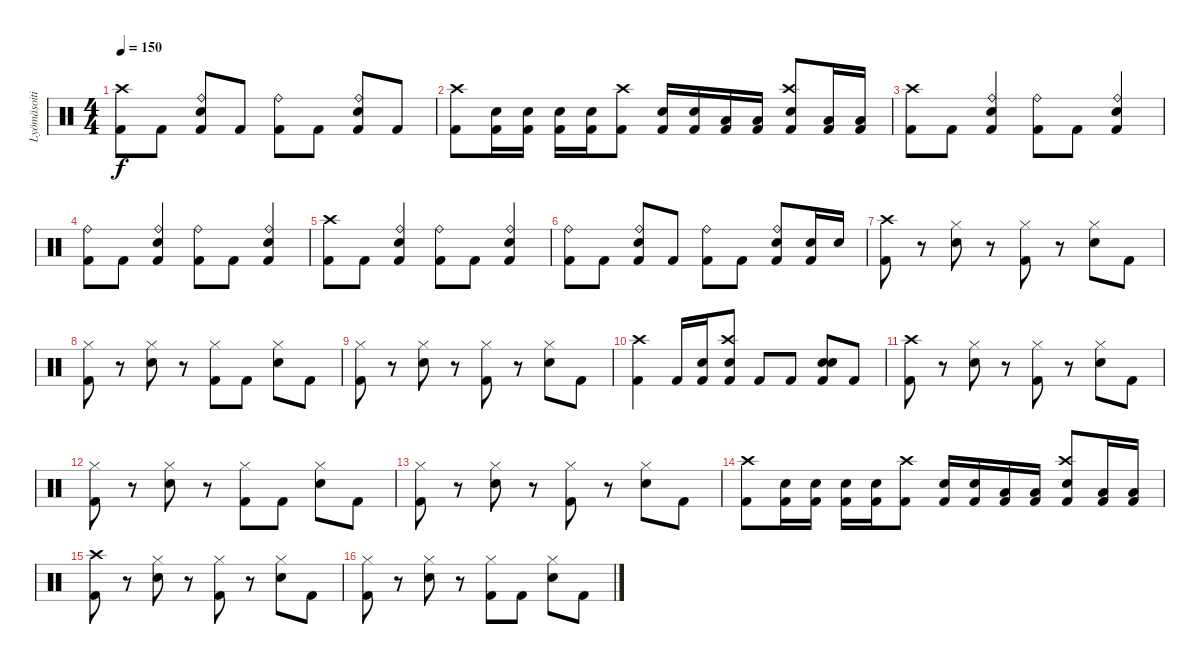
\track ("Lyömäsoitin" "Lyömäsoiti") {instrument percussion}
\staff {score}
\articulation defaults
\ts (4 4)
\tempo 150
\clef neutral
\ks c
("Kick (hit) 2" "Crash high (hit)").8{dy f} "Kick (hit) 2".8 ("Kick (hit) 2" "Ride (bell)" "Electric Snare (hit)").8 "Kick (hit) 2".8 ("Kick (hit) 2" "Ride (bell)").8 "Kick (hit) 2".8 ("Kick (hit) 2" "Ride (bell)" "Electric Snare (hit)").8 "Kick (hit) 2".8 |
("Kick (hit) 2" "Crash high (hit)").8 ("Kick (hit) 2" "Electric Snare (hit)").16 ("Kick (hit) 2" "Electric Snare (hit)").16 ("Kick (hit) 2" "Electric Snare (hit)").16 ("Kick (hit) 2" "Electric Snare (hit)").16 ("Kick (hit) 2" "Crash high (hit)").8 ("Kick (hit) 2" "Electric Snare (hit)").16 ("Kick (hit) 2" "Electric Snare (hit)").16 ("Kick (hit) 2" "Low Tom (hit)").16 ("Kick (hit) 2" "Low Tom (hit)").16 ("Kick (hit) 2" "Crash high (hit)" "Electric Snare (hit)").8 ("Kick (hit) 2" "Low Tom (hit)").16 ("Kick (hit) 2" "Low Tom (hit)").16 |
("Kick (hit) 2" "Crash high (hit)").8 "Kick (hit) 2".8 ("Kick (hit) 2" "Ride (bell)" "Electric Snare (hit)").4 ("Kick (hit) 2" "Ride (bell)").8 "Kick (hit) 2".8 ("Kick (hit) 2" "Ride (bell)" "Electric Snare (hit)").4 |
("Kick (hit) 2" "Ride (bell)").8 "Kick (hit) 2".8 ("Kick (hit) 2" "Ride (bell)" "Electric Snare (hit)").4 ("Kick (hit) 2" "Ride (bell)").8 "Kick (hit) 2".8 ("Kick (hit) 2" "Ride (bell)" "Electric Snare (hit)").4 |
("Kick (hit) 2" "Crash high (hit)").8 "Kick (hit) 2".8 ("Kick (hit) 2" "Ride (bell)" "Electric Snare (hit)").4 ("Kick (hit) 2" "Ride (bell)").8 "Kick (hit) 2".8 ("Kick (hit) 2" "Ride (bell)" "Electric Snare (hit)").4 |
("Kick (hit) 2" "Ride (bell)").8 "Kick (hit) 2".8 ("Kick (hit) 2" "Ride (bell)" "Electric Snare (hit)").8 "Kick (hit) 2".8 ("Kick (hit) 2" "Ride (bell)").8 "Kick (hit) 2".8 ("Kick (hit) 2" "Ride (bell)" "Electric Snare (hit)").8 ("Kick (hit) 2" "Electric Snare (hit)").16 "Electric Snare (hit)".16 |
("Crash high (hit)" "Kick (hit) 2").8 r.8 ("Hi-Hat (closed)" "Electric Snare (hit)").8 r.8 ("Hi-Hat (closed)" "Kick (hit) 2").8 r.8 ("Hi-Hat (closed)" "Electric Snare (hit)").8 "Kick (hit) 2".8 |
("Hi-Hat (closed)" "Kick (hit) 2").8 r.8 ("Hi-Hat (closed)" "Electric Snare (hit)").8 r.8 ("Hi-Hat (closed)" "Kick (hit) 2").8 "Kick (hit) 2".8 ("Hi-Hat (closed)" "Electric Snare (hit)").8 "Kick (hit) 2".8 |
("Hi-Hat (closed)" "Kick (hit) 2").8 r.8 ("Hi-Hat (closed)" "Electric Snare (hit)").8 r.8 ("Hi-Hat (closed)" "Kick (hit) 2").8 r.8 ("Hi-Hat (closed)" "Electric Snare (hit)").8 "Kick (hit) 2".8 |
("Kick (hit) 2" "Crash high (hit)").4 "Kick (hit) 2".16 ("Kick (hit) 2" "Snare (hit)").16 ("Kick (hit) 2" "Crash high (hit)" "Electric Snare (hit)").8 "Kick (hit) 2".8 "Kick (hit) 2".8 ("Kick (hit) 2" "Electric Snare (hit)" "Electric Snare (hit)").8 "Kick (hit) 2".8 |
("Crash high (hit)" "Kick (hit) 2").8 r.8 ("Hi-Hat (closed)" "Electric Snare (hit)").8 r.8 ("Hi-Hat (closed)" "Kick (hit) 2").8 r.8 ("Hi-Hat (closed)" "Electric Snare (hit)").8 "Kick (hit) 2".8 |
("Hi-Hat (closed)" "Kick (hit) 2").8 r.8 ("Hi-Hat (closed)" "Electric Snare (hit)").8 r.8 ("Hi-Hat (closed)" "Kick (hit) 2").8 "Kick (hit) 2".8 ("Hi-Hat (closed)" "Electric Snare (hit)").8 "Kick (hit) 2".8 |
("Hi-Hat (closed)" "Kick (hit) 2").8 r.8 ("Hi-Hat (closed)" "Electric Snare (hit)").8 r.8 ("Hi-Hat (closed)" "Kick (hit) 2").8 r.8 ("Hi-Hat (closed)" "Electric Snare (hit)").8 "Kick (hit) 2".8 |
("Kick (hit) 2" "Crash high (hit)").8 ("Kick (hit) 2" "Electric Snare (hit)").16 ("Kick (hit) 2" "Electric Snare (hit)").16 ("Kick (hit) 2" "Electric Snare (hit)").16 ("Kick (hit) 2" "Electric Snare (hit)").16 ("Kick (hit) 2" "Crash high (hit)").8 ("Kick (hit) 2" "Electric Snare (hit)").16 ("Kick (hit) 2" "Electric Snare (hit)").16 ("Kick (hit) 2" "Low Tom (hit)").16 ("Kick (hit) 2" "Low Tom (hit)").16 ("Kick (hit) 2" "Crash high (hit)" "Electric Snare (hit)").8 ("Kick (hit) 2" "Low Tom (hit)").16 ("Kick (hit) 2" "Low Tom (hit)").16 |
("Crash high (hit)" "Kick (hit) 2").8 r.8 ("Hi-Hat (closed)" "Electric Snare (hit)").8 r.8 ("Hi-Hat (closed)" "Kick (hit) 2").8 r.8 ("Hi-Hat (closed)" "Electric Snare (hit)").8 "Kick (hit) 2".8 |
("Hi-Hat (closed)" "Kick (hit) 2").8 r.8 ("Hi-Hat (closed)" "Electric Snare (hit)").8 r.8 ("Hi-Hat (closed)" "Kick (hit) 2").8 "Kick (hit) 2".8 ("Hi-Hat (closed)" "Electric Snare (hit)").8 "Kick (hit) 2".8
